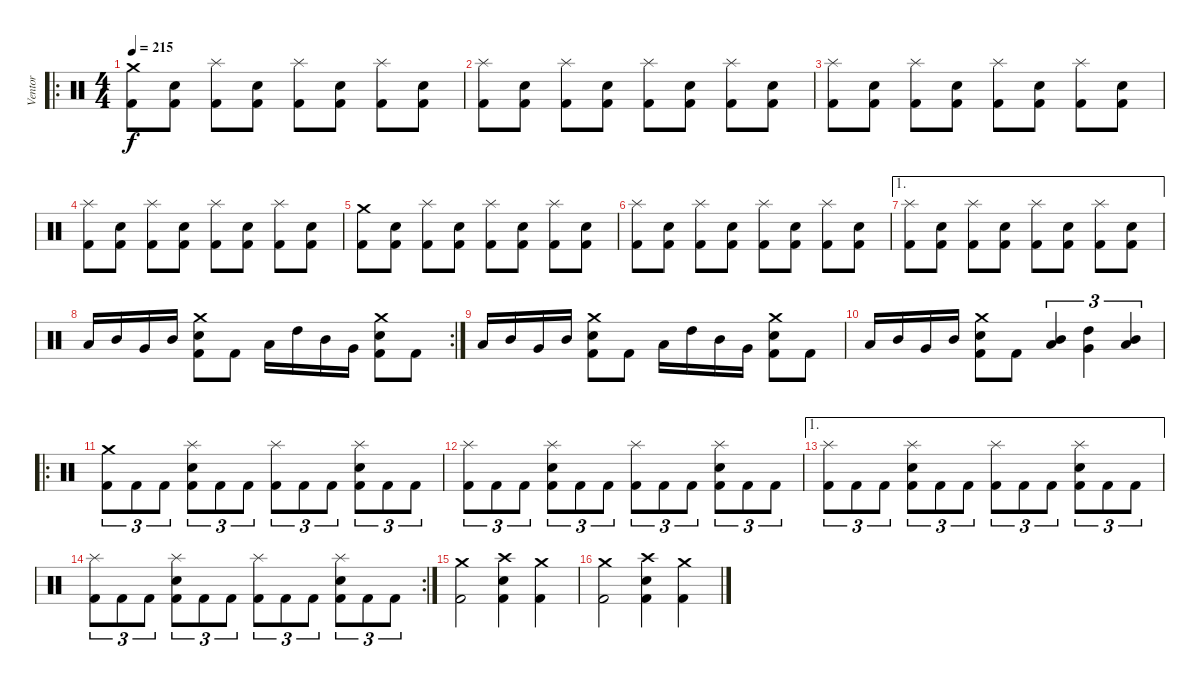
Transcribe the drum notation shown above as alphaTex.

\track ("Ventor" "Ventor") {instrument percussion}
\staff {score}
\articulation defaults
\ro
\ts (4 4)
\tempo 215
\clef neutral
\ks c
("Crash medium (hit)" "Kick (hit) 2").8{dy f} ("Electric Snare (hit)" "Kick (hit) 2").8 ("Splash (hit)" "Kick (hit) 2").8 ("Electric Snare (hit)" "Kick (hit) 2").8 ("Splash (hit)" "Kick (hit) 2").8 ("Electric Snare (hit)" "Kick (hit) 2").8 ("Splash (hit)" "Kick (hit) 2").8 ("Electric Snare (hit)" "Kick (hit) 2").8 |
("Splash (hit)" "Kick (hit) 2").8 ("Electric Snare (hit)" "Kick (hit) 2").8 ("Splash (hit)" "Kick (hit) 2").8 ("Electric Snare (hit)" "Kick (hit) 2").8 ("Splash (hit)" "Kick (hit) 2").8 ("Electric Snare (hit)" "Kick (hit) 2").8 ("Splash (hit)" "Kick (hit) 2").8 ("Electric Snare (hit)" "Kick (hit) 2").8 |
("Splash (hit)" "Kick (hit) 2").8 ("Electric Snare (hit)" "Kick (hit) 2").8 ("Splash (hit)" "Kick (hit) 2").8 ("Electric Snare (hit)" "Kick (hit) 2").8 ("Splash (hit)" "Kick (hit) 2").8 ("Electric Snare (hit)" "Kick (hit) 2").8 ("Splash (hit)" "Kick (hit) 2").8 ("Electric Snare (hit)" "Kick (hit) 2").8 |
("Splash (hit)" "Kick (hit) 2").8 ("Electric Snare (hit)" "Kick (hit) 2").8 ("Splash (hit)" "Kick (hit) 2").8 ("Electric Snare (hit)" "Kick (hit) 2").8 ("Splash (hit)" "Kick (hit) 2").8 ("Electric Snare (hit)" "Kick (hit) 2").8 ("Splash (hit)" "Kick (hit) 2").8 ("Electric Snare (hit)" "Kick (hit) 2").8 |
("Crash medium (hit)" "Kick (hit) 2").8 ("Electric Snare (hit)" "Kick (hit) 2").8 ("Splash (hit)" "Kick (hit) 2").8 ("Electric Snare (hit)" "Kick (hit) 2").8 ("Splash (hit)" "Kick (hit) 2").8 ("Electric Snare (hit)" "Kick (hit) 2").8 ("Splash (hit)" "Kick (hit) 2").8 ("Electric Snare (hit)" "Kick (hit) 2").8 |
("Splash (hit)" "Kick (hit) 2").8 ("Electric Snare (hit)" "Kick (hit) 2").8 ("Splash (hit)" "Kick (hit) 2").8 ("Electric Snare (hit)" "Kick (hit) 2").8 ("Splash (hit)" "Kick (hit) 2").8 ("Electric Snare (hit)" "Kick (hit) 2").8 ("Splash (hit)" "Kick (hit) 2").8 ("Electric Snare (hit)" "Kick (hit) 2").8 |
\ae 1
("Splash (hit)" "Kick (hit) 2").8 ("Electric Snare (hit)" "Kick (hit) 2").8 ("Splash (hit)" "Kick (hit) 2").8 ("Electric Snare (hit)" "Kick (hit) 2").8 ("Splash (hit)" "Kick (hit) 2").8 ("Electric Snare (hit)" "Kick (hit) 2").8 ("Splash (hit)" "Kick (hit) 2").8 ("Electric Snare (hit)" "Kick (hit) 2").8 |
\rc 2 "Low Tom (hit)".16 "Mid Tom (hit)".16 "Very Low Tom (hit)".16 "Mid Tom (hit)".16
("Crash medium (hit)" "Electric Snare (hit)" "Kick (hit) 2").8 "Kick (hit) 2".8 "Low Tom (hit)".16 "High Tom (hit)".16 "Mid Tom (hit)".16 "Very Low Tom (hit)".16 ("Crash medium (hit)" "Electric Snare (hit)" "Kick (hit) 2").8 "Kick (hit) 2".8 |
"Low Tom (hit)".16 "Mid Tom (hit)".16 "Very Low Tom (hit)".16 "Mid Tom (hit)".16 ("Crash medium (hit)" "Electric Snare (hit)" "Kick (hit) 2").8 "Kick (hit) 2".8 "Low Tom (hit)".16 "High Tom (hit)".16 "Mid Tom (hit)".16 "Very Low Tom (hit)".16 ("Crash medium (hit)" "Electric Snare (hit)" "Kick (hit) 2").8 "Kick (hit) 2".8 |
"Low Tom (hit)".16 "Mid Tom (hit)".16 "Very Low Tom (hit)".16 "Mid Tom (hit)".16 ("Crash medium (hit)" "Electric Snare (hit)" "Kick (hit) 2").8 "Kick (hit) 2".8 ("Mid Tom (hit)" "Low Tom (hit)").4{tu (3 2)} ("High Tom (hit)" "Very Low Tom (hit)").4{tu (3 2)} ("Mid Tom (hit)" "Low Tom (hit)").4{tu (3 2)} |
\ro
("Crash medium (hit)" "Kick (hit) 2").8{tu (3 2)} "Kick (hit) 2".8{tu (3 2)} "Kick (hit) 2".8{tu (3 2)} ("Splash (hit)" "Electric Snare (hit)" "Kick (hit) 2").8{tu (3 2)} "Kick (hit) 2".8{tu (3 2)} "Kick (hit) 2".8{tu (3 2)} ("Splash (hit)" "Kick (hit) 2").8{tu (3 2)} "Kick (hit) 2".8{tu (3 2)} "Kick (hit) 2".8{tu (3 2)} ("Splash (hit)" "Electric Snare (hit)" "Kick (hit) 2").8{tu (3 2)} "Kick (hit) 2".8{tu (3 2)} "Kick (hit) 2".8{tu (3 2)} |
("Splash (hit)" "Kick (hit) 2").8{tu (3 2)} "Kick (hit) 2".8{tu (3 2)} "Kick (hit) 2".8{tu (3 2)} ("Splash (hit)" "Electric Snare (hit)" "Kick (hit) 2").8{tu (3 2)} "Kick (hit) 2".8{tu (3 2)} "Kick (hit) 2".8{tu (3 2)} ("Splash (hit)" "Kick (hit) 2").8{tu (3 2)} "Kick (hit) 2".8{tu (3 2)} "Kick (hit) 2".8{tu (3 2)} ("Splash (hit)" "Electric Snare (hit)" "Kick (hit) 2").8{tu (3 2)} "Kick (hit) 2".8{tu (3 2)} "Kick (hit) 2".8{tu (3 2)} |
\ae 1
("Splash (hit)" "Kick (hit) 2").8{tu (3 2)} "Kick (hit) 2".8{tu (3 2)} "Kick (hit) 2".8{tu (3 2)} ("Splash (hit)" "Electric Snare (hit)" "Kick (hit) 2").8{tu (3 2)} "Kick (hit) 2".8{tu (3 2)} "Kick (hit) 2".8{tu (3 2)} ("Splash (hit)" "Kick (hit) 2").8{tu (3 2)} "Kick (hit) 2".8{tu (3 2)} "Kick (hit) 2".8{tu (3 2)} ("Splash (hit)" "Electric Snare (hit)" "Kick (hit) 2").8{tu (3 2)} "Kick (hit) 2".8{tu (3 2)} "Kick (hit) 2".8{tu (3 2)} |
\rc 2
("Splash (hit)" "Kick (hit) 2").8{tu (3 2)} "Kick (hit) 2".8{tu (3 2)} "Kick (hit) 2".8{tu (3 2)} ("Splash (hit)" "Electric Snare (hit)" "Kick (hit) 2").8{tu (3 2)} "Kick (hit) 2".8{tu (3 2)} "Kick (hit) 2".8{tu (3 2)} ("Splash (hit)" "Kick (hit) 2").8{tu (3 2)} "Kick (hit) 2".8{tu (3 2)} "Kick (hit) 2".8{tu (3 2)} ("Splash (hit)" "Electric Snare (hit)" "Kick (hit) 2").8{tu (3 2)} "Kick (hit) 2".8{tu (3 2)} "Kick (hit) 2".8{tu (3 2)} |
("Crash medium (hit)" "Kick (hit) 2").2 ("Crash high (hit)" "Electric Snare (hit)" "Kick (hit) 2").4 ("Crash medium (hit)" "Kick (hit) 2").4 |
("Crash medium (hit)" "Kick (hit) 2").2 ("Crash high (hit)" "Electric Snare (hit)" "Kick (hit) 2").4 ("Crash medium (hit)" "Kick (hit) 2").4
